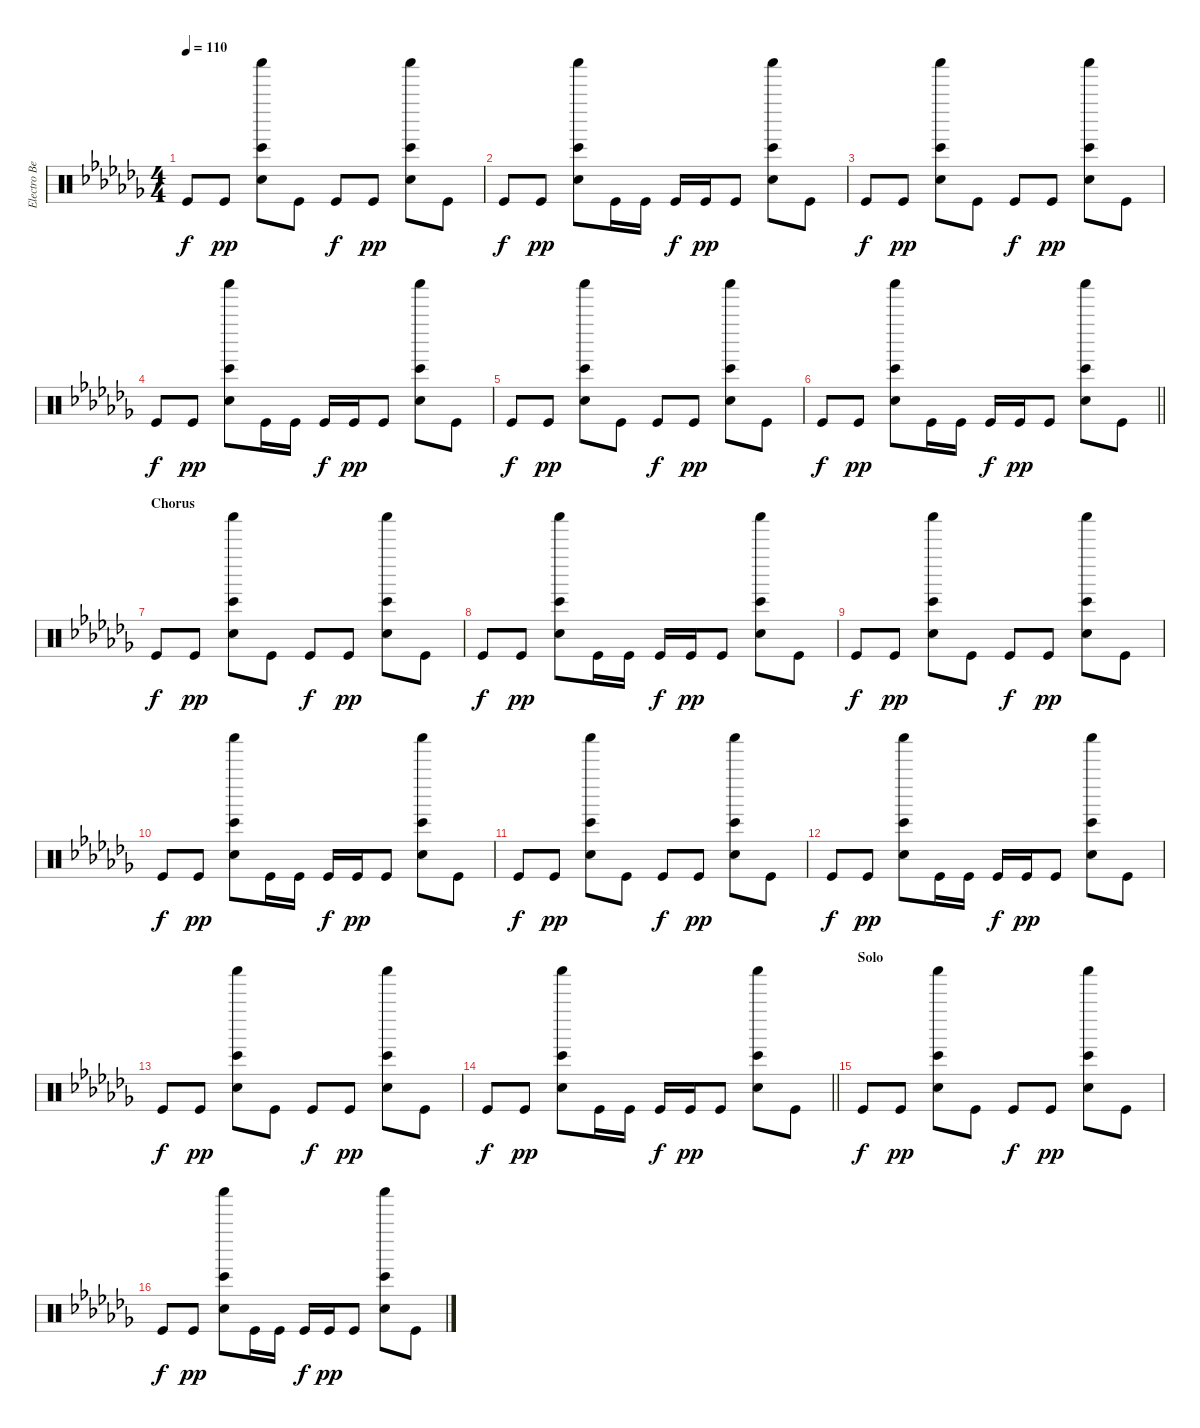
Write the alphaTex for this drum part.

\track ("Electro Beat - Joe Hahn" "Electro Be") {instrument percussion}
\staff {score}
\articulation defaults
\ts (4 4)
\tempo 110
\clef neutral
\ks abminor "Kick (hit)".8{dy f} "Kick (hit)".8{dy pp}
("Snare (hit) 2" "Bongo High (hit)" "Shaker (hit)").8 "Kick (hit)".8 "Kick (hit)".8{dy f} "Kick (hit)".8{dy pp} ("Snare (hit) 2" "Bongo High (hit)" "Shaker (hit)").8 "Kick (hit)".8 |
"Kick (hit)".8{dy f} "Kick (hit)".8{dy pp} ("Snare (hit) 2" "Bongo High (hit)" "Shaker (hit)").8 "Kick (hit)".16 "Kick (hit)".16 "Kick (hit)".16{dy f} "Kick (hit)".16{dy pp} "Kick (hit)".8 ("Snare (hit) 2" "Bongo High (hit)" "Shaker (hit)").8 "Kick (hit)".8 |
"Kick (hit)".8{dy f} "Kick (hit)".8{dy pp} ("Snare (hit) 2" "Bongo High (hit)" "Shaker (hit)").8 "Kick (hit)".8 "Kick (hit)".8{dy f} "Kick (hit)".8{dy pp} ("Snare (hit) 2" "Bongo High (hit)" "Shaker (hit)").8 "Kick (hit)".8 |
"Kick (hit)".8{dy f} "Kick (hit)".8{dy pp} ("Snare (hit) 2" "Bongo High (hit)" "Shaker (hit)").8 "Kick (hit)".16 "Kick (hit)".16 "Kick (hit)".16{dy f} "Kick (hit)".16{dy pp} "Kick (hit)".8 ("Snare (hit) 2" "Bongo High (hit)" "Shaker (hit)").8 "Kick (hit)".8 |
"Kick (hit)".8{dy f} "Kick (hit)".8{dy pp} ("Snare (hit) 2" "Bongo High (hit)" "Shaker (hit)").8 "Kick (hit)".8 "Kick (hit)".8{dy f} "Kick (hit)".8{dy pp} ("Snare (hit) 2" "Bongo High (hit)" "Shaker (hit)").8 "Kick (hit)".8 |
\barLineRight lightlight "Kick (hit)".8{dy f} "Kick (hit)".8{dy pp}
("Snare (hit) 2" "Bongo High (hit)" "Shaker (hit)").8 "Kick (hit)".16 "Kick (hit)".16 "Kick (hit)".16{dy f} "Kick (hit)".16{dy pp} "Kick (hit)".8 ("Snare (hit) 2" "Bongo High (hit)" "Shaker (hit)").8 "Kick (hit)".8 |
\section ("" "Chorus")
"Kick (hit)".8{dy f} "Kick (hit)".8{dy pp} ("Snare (hit) 2" "Bongo High (hit)" "Shaker (hit)").8 "Kick (hit)".8 "Kick (hit)".8{dy f} "Kick (hit)".8{dy pp} ("Snare (hit) 2" "Bongo High (hit)" "Shaker (hit)").8 "Kick (hit)".8 |
"Kick (hit)".8{dy f} "Kick (hit)".8{dy pp} ("Snare (hit) 2" "Bongo High (hit)" "Shaker (hit)").8 "Kick (hit)".16 "Kick (hit)".16 "Kick (hit)".16{dy f} "Kick (hit)".16{dy pp} "Kick (hit)".8 ("Snare (hit) 2" "Bongo High (hit)" "Shaker (hit)").8 "Kick (hit)".8 |
"Kick (hit)".8{dy f} "Kick (hit)".8{dy pp} ("Snare (hit) 2" "Bongo High (hit)" "Shaker (hit)").8 "Kick (hit)".8 "Kick (hit)".8{dy f} "Kick (hit)".8{dy pp} ("Snare (hit) 2" "Bongo High (hit)" "Shaker (hit)").8 "Kick (hit)".8 |
"Kick (hit)".8{dy f} "Kick (hit)".8{dy pp} ("Snare (hit) 2" "Bongo High (hit)" "Shaker (hit)").8 "Kick (hit)".16 "Kick (hit)".16 "Kick (hit)".16{dy f} "Kick (hit)".16{dy pp} "Kick (hit)".8 ("Snare (hit) 2" "Bongo High (hit)" "Shaker (hit)").8 "Kick (hit)".8 |
"Kick (hit)".8{dy f} "Kick (hit)".8{dy pp} ("Snare (hit) 2" "Bongo High (hit)" "Shaker (hit)").8 "Kick (hit)".8 "Kick (hit)".8{dy f} "Kick (hit)".8{dy pp} ("Snare (hit) 2" "Bongo High (hit)" "Shaker (hit)").8 "Kick (hit)".8 |
"Kick (hit)".8{dy f} "Kick (hit)".8{dy pp} ("Snare (hit) 2" "Bongo High (hit)" "Shaker (hit)").8 "Kick (hit)".16 "Kick (hit)".16 "Kick (hit)".16{dy f} "Kick (hit)".16{dy pp} "Kick (hit)".8 ("Snare (hit) 2" "Bongo High (hit)" "Shaker (hit)").8 "Kick (hit)".8 |
"Kick (hit)".8{dy f} "Kick (hit)".8{dy pp} ("Snare (hit) 2" "Bongo High (hit)" "Shaker (hit)").8 "Kick (hit)".8 "Kick (hit)".8{dy f} "Kick (hit)".8{dy pp} ("Snare (hit) 2" "Bongo High (hit)" "Shaker (hit)").8 "Kick (hit)".8 |
\barLineRight lightlight "Kick (hit)".8{dy f} "Kick (hit)".8{dy pp}
("Snare (hit) 2" "Bongo High (hit)" "Shaker (hit)").8 "Kick (hit)".16 "Kick (hit)".16 "Kick (hit)".16{dy f} "Kick (hit)".16{dy pp} "Kick (hit)".8 ("Snare (hit) 2" "Bongo High (hit)" "Shaker (hit)").8 "Kick (hit)".8 |
\section ("" "Solo")
"Kick (hit)".8{dy f} "Kick (hit)".8{dy pp} ("Snare (hit) 2" "Bongo High (hit)" "Shaker (hit)").8 "Kick (hit)".8 "Kick (hit)".8{dy f} "Kick (hit)".8{dy pp} ("Snare (hit) 2" "Bongo High (hit)" "Shaker (hit)").8 "Kick (hit)".8 |
"Kick (hit)".8{dy f} "Kick (hit)".8{dy pp} ("Snare (hit) 2" "Bongo High (hit)" "Shaker (hit)").8 "Kick (hit)".16 "Kick (hit)".16 "Kick (hit)".16{dy f} "Kick (hit)".16{dy pp} "Kick (hit)".8 ("Snare (hit) 2" "Bongo High (hit)" "Shaker (hit)").8 "Kick (hit)".8
